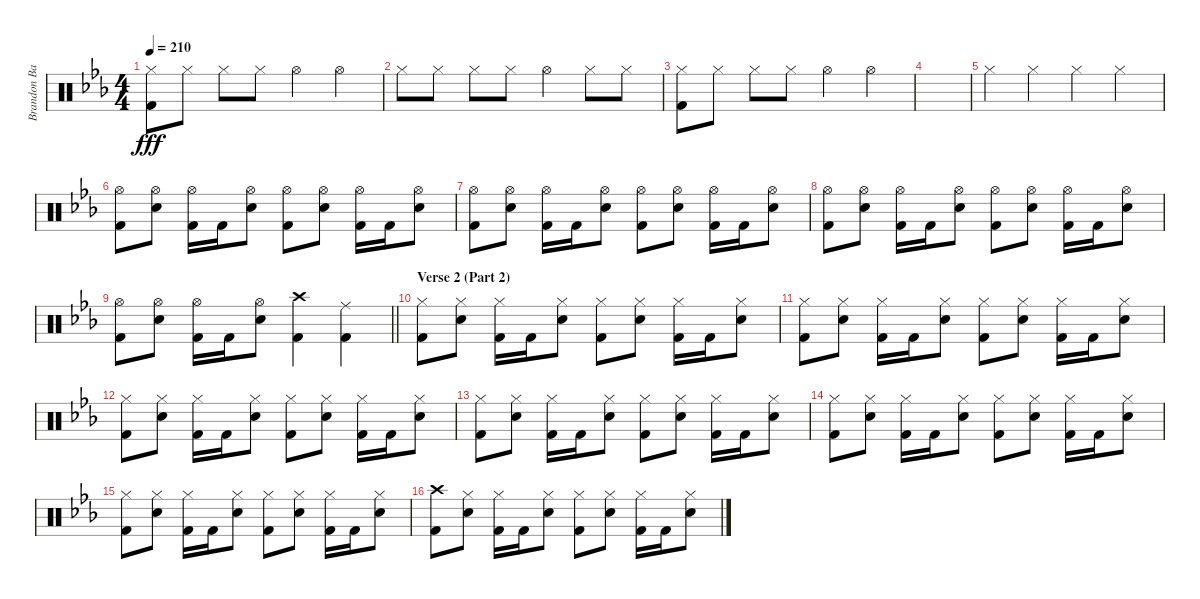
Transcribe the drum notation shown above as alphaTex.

\track ("Brandon Barnes" "Brandon Ba") {instrument percussion}
\staff {score}
\articulation defaults
\ts (4 4)
\tempo 210
\clef neutral
\ks eb
("Hi-Hat (closed)" "Kick (hit) 2").8{dy fff} "Hi-Hat (closed)".8 "Hi-Hat (closed)".8 "Hi-Hat (closed)".8 "Hi-Hat (open)".4 "Hi-Hat (open)".4 |
"Hi-Hat (closed)".8 "Hi-Hat (closed)".8 "Hi-Hat (closed)".8 "Hi-Hat (closed)".8 "Hi-Hat (open)".4 "Hi-Hat (closed)".8 "Hi-Hat (closed)".8 |
("Hi-Hat (closed)" "Kick (hit) 2").8 "Hi-Hat (closed)".8 "Hi-Hat (closed)".8 "Hi-Hat (closed)".8 "Hi-Hat (open)".4 "Hi-Hat (open)".4 |
|
"Hi-Hat (closed)".4 "Hi-Hat (closed)".4 "Hi-Hat (closed)".4 "Hi-Hat (closed)".4 |
("Hi-Hat (open)" "Kick (hit) 2").8 ("Hi-Hat (open)" "Snare (hit) 2").8 ("Hi-Hat (open)" "Kick (hit) 2").16 "Kick (hit) 2".16 ("Hi-Hat (open)" "Snare (hit) 2").8 ("Hi-Hat (open)" "Kick (hit) 2").8 ("Hi-Hat (open)" "Snare (hit) 2").8 ("Hi-Hat (open)" "Kick (hit) 2").16 "Kick (hit) 2".16 ("Hi-Hat (open)" "Snare (hit) 2").8 |
("Hi-Hat (open)" "Kick (hit) 2").8 ("Hi-Hat (open)" "Snare (hit) 2").8 ("Hi-Hat (open)" "Kick (hit) 2").16 "Kick (hit) 2".16 ("Hi-Hat (open)" "Snare (hit) 2").8 ("Hi-Hat (open)" "Kick (hit) 2").8 ("Hi-Hat (open)" "Snare (hit) 2").8 ("Hi-Hat (open)" "Kick (hit) 2").16 "Kick (hit) 2".16 ("Hi-Hat (open)" "Snare (hit) 2").8 |
("Hi-Hat (open)" "Kick (hit) 2").8 ("Hi-Hat (open)" "Snare (hit) 2").8 ("Hi-Hat (open)" "Kick (hit) 2").16 "Kick (hit) 2".16 ("Hi-Hat (open)" "Snare (hit) 2").8 ("Hi-Hat (open)" "Kick (hit) 2").8 ("Hi-Hat (open)" "Snare (hit) 2").8 ("Hi-Hat (open)" "Kick (hit) 2").16 "Kick (hit) 2".16 ("Hi-Hat (open)" "Snare (hit) 2").8 |
\barLineRight lightlight
("Hi-Hat (open)" "Kick (hit) 2").8 ("Hi-Hat (open)" "Snare (hit) 2").8 ("Hi-Hat (open)" "Kick (hit) 2").16 "Kick (hit) 2".16 ("Hi-Hat (open)" "Snare (hit) 2").8 ("Crash high (hit)" "Kick (hit) 2").4 ("Ride (middle)" "Kick (hit) 2").4 |
\section ("" "Verse 2 (Part 2)")
("Hi-Hat (closed)" "Kick (hit) 2").8 ("Hi-Hat (closed)" "Snare (hit) 2").8 ("Hi-Hat (closed)" "Kick (hit) 2").16 "Kick (hit) 2".16 ("Hi-Hat (closed)" "Snare (hit) 2").8 ("Hi-Hat (closed)" "Kick (hit) 2").8 ("Hi-Hat (closed)" "Snare (hit) 2").8 ("Hi-Hat (closed)" "Kick (hit) 2").16 "Kick (hit) 2".16 ("Hi-Hat (closed)" "Snare (hit) 2").8 |
("Hi-Hat (closed)" "Kick (hit) 2").8 ("Hi-Hat (closed)" "Snare (hit) 2").8 ("Hi-Hat (closed)" "Kick (hit) 2").16 "Kick (hit) 2".16 ("Hi-Hat (closed)" "Snare (hit) 2").8 ("Hi-Hat (closed)" "Kick (hit) 2").8 ("Hi-Hat (closed)" "Snare (hit) 2").8 ("Hi-Hat (closed)" "Kick (hit) 2").16 "Kick (hit) 2".16 ("Hi-Hat (closed)" "Snare (hit) 2").8 |
("Hi-Hat (closed)" "Kick (hit) 2").8 ("Hi-Hat (closed)" "Snare (hit) 2").8 ("Hi-Hat (closed)" "Kick (hit) 2").16 "Kick (hit) 2".16 ("Hi-Hat (closed)" "Snare (hit) 2").8 ("Hi-Hat (closed)" "Kick (hit) 2").8 ("Hi-Hat (closed)" "Snare (hit) 2").8 ("Hi-Hat (closed)" "Kick (hit) 2").16 "Kick (hit) 2".16 ("Hi-Hat (closed)" "Snare (hit) 2").8 |
("Hi-Hat (closed)" "Kick (hit) 2").8 ("Hi-Hat (closed)" "Snare (hit) 2").8 ("Hi-Hat (closed)" "Kick (hit) 2").16 "Kick (hit) 2".16 ("Hi-Hat (closed)" "Snare (hit) 2").8 ("Hi-Hat (closed)" "Kick (hit) 2").8 ("Hi-Hat (closed)" "Snare (hit) 2").8 ("Hi-Hat (closed)" "Kick (hit) 2").16 "Kick (hit) 2".16 ("Hi-Hat (closed)" "Snare (hit) 2").8 |
("Hi-Hat (closed)" "Kick (hit) 2").8 ("Hi-Hat (closed)" "Snare (hit) 2").8 ("Hi-Hat (closed)" "Kick (hit) 2").16 "Kick (hit) 2".16 ("Hi-Hat (closed)" "Snare (hit) 2").8 ("Hi-Hat (closed)" "Kick (hit) 2").8 ("Hi-Hat (closed)" "Snare (hit) 2").8 ("Hi-Hat (closed)" "Kick (hit) 2").16 "Kick (hit) 2".16 ("Hi-Hat (closed)" "Snare (hit) 2").8 |
("Hi-Hat (closed)" "Kick (hit) 2").8 ("Hi-Hat (closed)" "Snare (hit) 2").8 ("Hi-Hat (closed)" "Kick (hit) 2").16 "Kick (hit) 2".16 ("Hi-Hat (closed)" "Snare (hit) 2").8 ("Hi-Hat (closed)" "Kick (hit) 2").8 ("Hi-Hat (closed)" "Snare (hit) 2").8 ("Hi-Hat (closed)" "Kick (hit) 2").16 "Kick (hit) 2".16 ("Hi-Hat (closed)" "Snare (hit) 2").8 |
("Crash high (hit)" "Kick (hit) 2").8 ("Hi-Hat (closed)" "Snare (hit) 2").8 ("Hi-Hat (closed)" "Kick (hit) 2").16 "Kick (hit) 2".16 ("Hi-Hat (closed)" "Snare (hit) 2").8 ("Hi-Hat (closed)" "Kick (hit) 2").8 ("Hi-Hat (closed)" "Snare (hit) 2").8 ("Hi-Hat (closed)" "Kick (hit) 2").16 "Kick (hit) 2".16 ("Hi-Hat (closed)" "Snare (hit) 2").8
